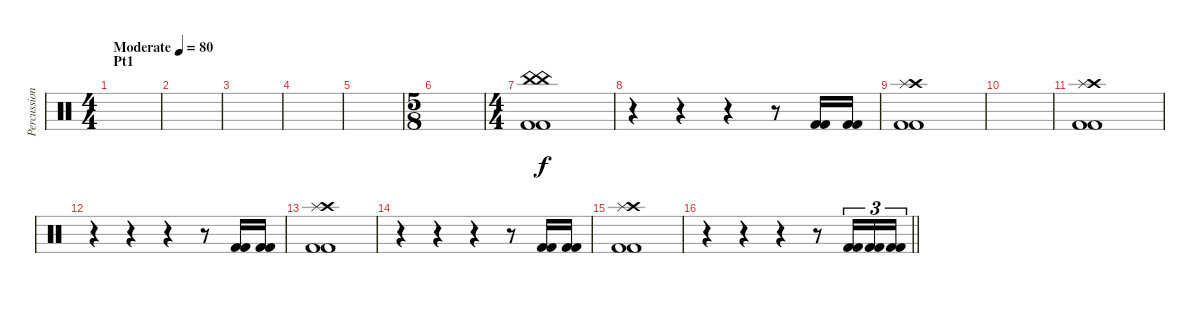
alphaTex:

\track ("Percussion" "Percussion") {instrument percussion}
\staff {score}
\articulation defaults
\ts (4 4)
\section ("" "Pt1")
\tempo (80 "Moderate")
\clef neutral
\ks c
|
|
|
|
|
\ts (5 8)
|
\ts (4 4)
("China (hit)" "China (hit)" "Kick (hit) 2" "Kick (hit) 2").1 |
r.4 r.4 r.4 r.8 ("Kick (hit) 2" "Kick (hit) 2").16 ("Kick (hit) 2" "Kick (hit) 2").16 |
("Crash high (hit)" "Splash (hit)" "Kick (hit) 2" "Kick (hit) 2").1 |
|
("Crash high (hit)" "Splash (hit)" "Kick (hit) 2" "Kick (hit) 2").1 |
r.4 r.4 r.4 r.8 ("Kick (hit) 2" "Kick (hit) 2").16 ("Kick (hit) 2" "Kick (hit) 2").16 |
("Crash high (hit)" "Splash (hit)" "Kick (hit) 2" "Kick (hit) 2").1 |
r.4 r.4 r.4 r.8 ("Kick (hit) 2" "Kick (hit) 2").16 ("Kick (hit) 2" "Kick (hit) 2").16 |
("Crash high (hit)" "Splash (hit)" "Kick (hit) 2" "Kick (hit) 2").1 |
\barLineRight lightlight
r.4 r.4 r.4 r.8 ("Kick (hit) 2" "Kick (hit) 2").16{tu (3 2)} ("Kick (hit) 2" "Kick (hit) 2").16{tu (3 2)} ("Kick (hit) 2" "Kick (hit) 2").16{tu (3 2)}
